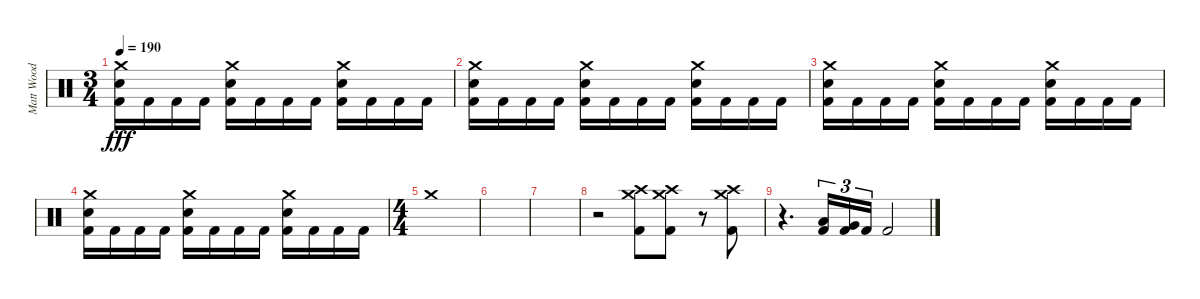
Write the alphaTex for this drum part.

\track ("Matt Wood" "Matt Wood") {instrument percussion}
\staff {score}
\articulation defaults
\ts (3 4)
\tempo 190
\clef neutral
\ks c
("Crash medium (hit)" "Electric Snare (hit)" "Kick (hit) 2").16{dy fff} "Kick (hit) 2".16 "Kick (hit) 2".16 "Kick (hit) 2".16 ("Crash medium (hit)" "Electric Snare (hit)" "Kick (hit) 2").16 "Kick (hit) 2".16 "Kick (hit) 2".16 "Kick (hit) 2".16 ("Crash medium (hit)" "Electric Snare (hit)" "Kick (hit) 2").16 "Kick (hit) 2".16 "Kick (hit) 2".16 "Kick (hit) 2".16 |
("Crash medium (hit)" "Electric Snare (hit)" "Kick (hit) 2").16 "Kick (hit) 2".16 "Kick (hit) 2".16 "Kick (hit) 2".16 ("Crash medium (hit)" "Electric Snare (hit)" "Kick (hit) 2").16 "Kick (hit) 2".16 "Kick (hit) 2".16 "Kick (hit) 2".16 ("Crash medium (hit)" "Electric Snare (hit)" "Kick (hit) 2").16 "Kick (hit) 2".16 "Kick (hit) 2".16 "Kick (hit) 2".16 |
("Crash medium (hit)" "Electric Snare (hit)" "Kick (hit) 2").16 "Kick (hit) 2".16 "Kick (hit) 2".16 "Kick (hit) 2".16 ("Crash medium (hit)" "Electric Snare (hit)" "Kick (hit) 2").16 "Kick (hit) 2".16 "Kick (hit) 2".16 "Kick (hit) 2".16 ("Crash medium (hit)" "Electric Snare (hit)" "Kick (hit) 2").16 "Kick (hit) 2".16 "Kick (hit) 2".16 "Kick (hit) 2".16 |
("Crash medium (hit)" "Electric Snare (hit)" "Kick (hit) 2").16 "Kick (hit) 2".16 "Kick (hit) 2".16 "Kick (hit) 2".16 ("Crash medium (hit)" "Electric Snare (hit)" "Kick (hit) 2").16 "Kick (hit) 2".16 "Kick (hit) 2".16 "Kick (hit) 2".16 ("Crash medium (hit)" "Electric Snare (hit)" "Kick (hit) 2").16 "Kick (hit) 2".16 "Kick (hit) 2".16 "Kick (hit) 2".16 |
\ts (4 4)
"Crash medium (hit)".1 |
|
|
r.2 ("Crash medium (hit)" "Crash high (hit)" "Kick (hit) 2").8 ("Crash medium (hit)" "Crash high (hit)" "Kick (hit) 2").8 r.8 ("Crash medium (hit)" "Crash high (hit)" "Kick (hit) 2").8 |
r.4{d} ("Low Tom (hit)" "Kick (hit) 2").16{tu (3 2)} ("Very Low Tom (hit)" "Kick (hit) 2").16{tu (3 2)} "Kick (hit) 2".16{tu (3 2)} "Kick (hit) 2".2
